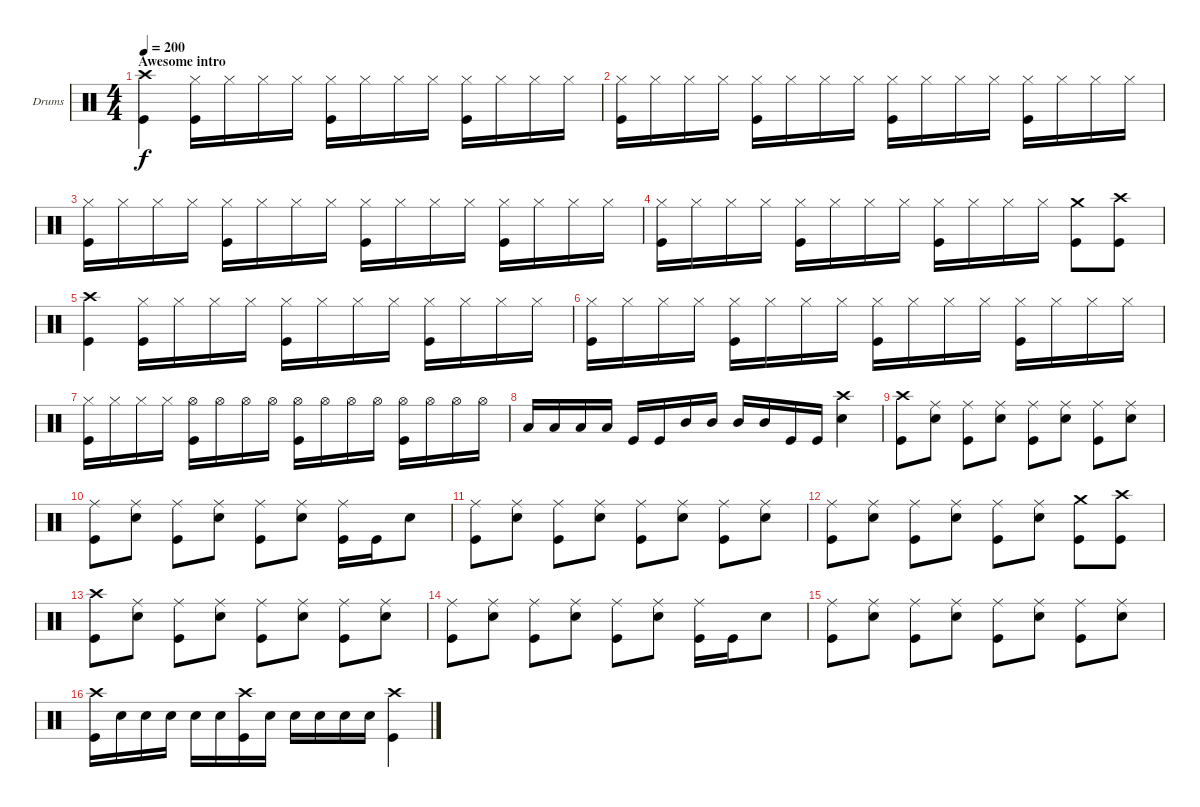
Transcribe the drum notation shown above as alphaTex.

\defaultSystemsLayout 4
\bracketExtendMode groupsimilarinstruments
\firstSystemTrackNameOrientation horizontal
\otherSystemsTrackNameOrientation horizontal
\track ("Markus Freiwald" "Drums") {instrument percussion}
\staff {score}
\articulation defaults
\ts (4 4)
\section ("" "Awesome intro")
\tempo 200
\clef neutral
\scale
0.641509
\ks c
("Crash high (hit)" "Kick (hit)").4{dy f} ("Hi-Hat (closed)" "Kick (hit)").16 "Hi-Hat (closed)".16 "Hi-Hat (closed)".16 "Hi-Hat (closed)".16 ("Hi-Hat (closed)" "Kick (hit)").16 "Hi-Hat (closed)".16 "Hi-Hat (closed)".16 "Hi-Hat (closed)".16 ("Hi-Hat (closed)" "Kick (hit)").16 "Hi-Hat (closed)".16 "Hi-Hat (closed)".16 "Hi-Hat (closed)".16 |
\scale
0.358491 ("Hi-Hat (closed)" "Kick (hit)").16 "Hi-Hat (closed)".16 "Hi-Hat (closed)".16 "Hi-Hat (closed)".16 ("Hi-Hat (closed)" "Kick (hit)").16 "Hi-Hat (closed)".16 "Hi-Hat (closed)".16 "Hi-Hat (closed)".16 ("Hi-Hat (closed)" "Kick (hit)").16 "Hi-Hat (closed)".16 "Hi-Hat (closed)".16 "Hi-Hat (closed)".16 ("Hi-Hat (closed)" "Kick (hit)").16 "Hi-Hat (closed)".16 "Hi-Hat (closed)".16 "Hi-Hat (closed)".16 |
\scale
0.5 ("Hi-Hat (closed)" "Kick (hit)").16 "Hi-Hat (closed)".16 "Hi-Hat (closed)".16 "Hi-Hat (closed)".16 ("Hi-Hat (closed)" "Kick (hit)").16 "Hi-Hat (closed)".16 "Hi-Hat (closed)".16 "Hi-Hat (closed)".16 ("Hi-Hat (closed)" "Kick (hit)").16 "Hi-Hat (closed)".16 "Hi-Hat (closed)".16 "Hi-Hat (closed)".16 ("Hi-Hat (closed)" "Kick (hit)").16 "Hi-Hat (closed)".16 "Hi-Hat (closed)".16 "Hi-Hat (closed)".16 |
\scale
0.5 ("Hi-Hat (closed)" "Kick (hit)").16 "Hi-Hat (closed)".16 "Hi-Hat (closed)".16 "Hi-Hat (closed)".16 ("Hi-Hat (closed)" "Kick (hit)").16 "Hi-Hat (closed)".16 "Hi-Hat (closed)".16 "Hi-Hat (closed)".16 ("Hi-Hat (closed)" "Kick (hit)").16 "Hi-Hat (closed)".16 "Hi-Hat (closed)".16 "Hi-Hat (closed)".16 ("Crash medium (hit)" "Kick (hit)").8 ("Crash high (hit)" "Kick (hit)").8 |
\scale
0.5 ("Crash high (hit)" "Kick (hit)").4 ("Hi-Hat (closed)" "Kick (hit)").16 "Hi-Hat (closed)".16 "Hi-Hat (closed)".16 "Hi-Hat (closed)".16 ("Hi-Hat (closed)" "Kick (hit)").16 "Hi-Hat (closed)".16 "Hi-Hat (closed)".16 "Hi-Hat (closed)".16 ("Hi-Hat (closed)" "Kick (hit)").16 "Hi-Hat (closed)".16 "Hi-Hat (closed)".16 "Hi-Hat (closed)".16 |
\scale
0.5 ("Hi-Hat (closed)" "Kick (hit)").16 "Hi-Hat (closed)".16 "Hi-Hat (closed)".16 "Hi-Hat (closed)".16 ("Hi-Hat (closed)" "Kick (hit)").16 "Hi-Hat (closed)".16 "Hi-Hat (closed)".16 "Hi-Hat (closed)".16 ("Hi-Hat (closed)" "Kick (hit)").16 "Hi-Hat (closed)".16 "Hi-Hat (closed)".16 "Hi-Hat (closed)".16 ("Hi-Hat (closed)" "Kick (hit)").16 "Hi-Hat (closed)".16 "Hi-Hat (closed)".16 "Hi-Hat (closed)".16 |
\scale
0.5 ("Hi-Hat (closed)" "Kick (hit)").16 "Hi-Hat (closed)".16 "Hi-Hat (closed)".16 "Hi-Hat (closed)".16 ("Kick (hit)" "Hi-Hat (open)").16 "Hi-Hat (open)".16 "Hi-Hat (open)".16 "Hi-Hat (open)".16 ("Kick (hit)" "Hi-Hat (open)").16 "Hi-Hat (open)".16 "Hi-Hat (open)".16 "Hi-Hat (open)".16 ("Kick (hit)" "Hi-Hat (open)").16 "Hi-Hat (open)".16 "Hi-Hat (open)".16 "Hi-Hat (open)".16 |
\scale
0.5 "Low Tom (hit)".16 "Low Tom (hit)".16 "Low Tom (hit)".16 "Low Tom (hit)".16 "Kick (hit)".16 "Kick (hit)".16 "Mid Tom (hit)".16 "Mid Tom (hit)".16 "Mid Tom (hit)".16 "Mid Tom (hit)".16 "Kick (hit)".16 "Kick (hit)".16 ("Snare (hit) 2" "Crash high (hit)").4 |
\scale
0.5 ("Crash high (hit)" "Kick (hit)").8 ("Snare (hit) 2" "Ride (middle)").8 ("Ride (middle)" "Kick (hit)").8 ("Ride (middle)" "Snare (hit) 2").8 ("Ride (middle)" "Kick (hit)").8 ("Ride (middle)" "Snare (hit) 2").8 ("Ride (middle)" "Kick (hit)").8 ("Ride (middle)" "Snare (hit) 2").8 |
\scale
0.5 ("Ride (middle)" "Kick (hit)").8 ("Ride (middle)" "Snare (hit) 2").8 ("Ride (middle)" "Kick (hit)").8 ("Ride (middle)" "Snare (hit) 2").8 ("Ride (middle)" "Kick (hit)").8 ("Ride (middle)" "Snare (hit) 2").8 ("Ride (middle)" "Kick (hit)").16 "Kick (hit)".16 "Snare (hit) 2".8 |
\scale
0.5 ("Ride (middle)" "Kick (hit)").8 ("Ride (middle)" "Snare (hit) 2").8 ("Ride (middle)" "Kick (hit)").8 ("Ride (middle)" "Snare (hit) 2").8 ("Ride (middle)" "Kick (hit)").8 ("Ride (middle)" "Snare (hit) 2").8 ("Ride (middle)" "Kick (hit)").8 ("Ride (middle)" "Snare (hit) 2").8 |
\scale
0.5 ("Ride (middle)" "Kick (hit)").8 ("Ride (middle)" "Snare (hit) 2").8 ("Ride (middle)" "Kick (hit)").8 ("Ride (middle)" "Snare (hit) 2").8 ("Ride (middle)" "Kick (hit)").8 ("Ride (middle)" "Snare (hit) 2").8 ("Crash medium (hit)" "Kick (hit)").8 ("Crash high (hit)" "Kick (hit)").8 |
\scale
0.5 ("Crash high (hit)" "Kick (hit)").8 ("Snare (hit) 2" "Ride (middle)").8 ("Ride (middle)" "Kick (hit)").8 ("Ride (middle)" "Snare (hit) 2").8 ("Ride (middle)" "Kick (hit)").8 ("Ride (middle)" "Snare (hit) 2").8 ("Ride (middle)" "Kick (hit)").8 ("Ride (middle)" "Snare (hit) 2").8 |
\scale
0.5 ("Ride (middle)" "Kick (hit)").8 ("Ride (middle)" "Snare (hit) 2").8 ("Ride (middle)" "Kick (hit)").8 ("Ride (middle)" "Snare (hit) 2").8 ("Ride (middle)" "Kick (hit)").8 ("Ride (middle)" "Snare (hit) 2").8 ("Ride (middle)" "Kick (hit)").16 "Kick (hit)".16 "Snare (hit) 2".8 |
("Ride (middle)" "Kick (hit)").8 ("Ride (middle)" "Snare (hit) 2").8 ("Ride (middle)" "Kick (hit)").8 ("Ride (middle)" "Snare (hit) 2").8 ("Ride (middle)" "Kick (hit)").8 ("Ride (middle)" "Snare (hit) 2").8 ("Ride (middle)" "Kick (hit)").8 ("Ride (middle)" "Snare (hit) 2").8 |
("Crash high (hit)" "Kick (hit)").16 "Snare (hit) 2".16 "Snare (hit) 2".16 "Snare (hit) 2".16 "Snare (hit) 2".16 "Snare (hit) 2".16 ("Crash high (hit)" "Kick (hit)").16 "Snare (hit) 2".16 "Snare (hit) 2".16 "Snare (hit) 2".16 "Snare (hit) 2".16 "Snare (hit) 2".16 ("Crash high (hit)" "Kick (hit)").4
